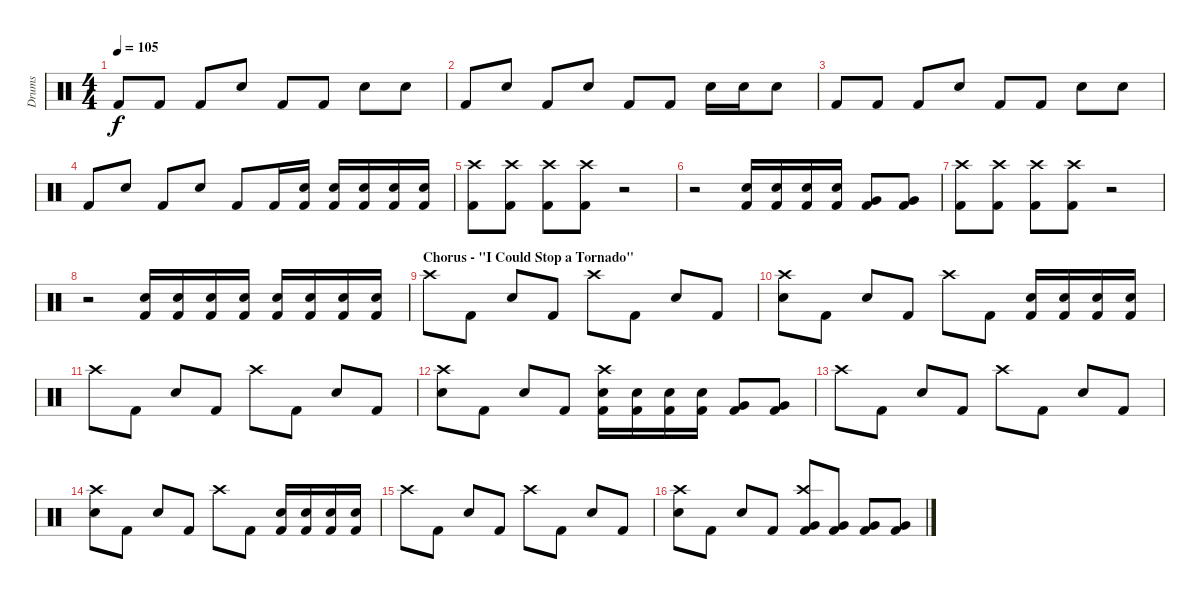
\track ("Drums" "Drums") {instrument percussion}
\staff {score}
\articulation defaults
\ts (4 4)
\tempo 105
\clef neutral
\ks c "Kick (hit) 2".8{dy f} "Kick (hit) 2".8 "Kick (hit) 2".8 "Snare (hit) 2".8 "Kick (hit) 2".8 "Kick (hit) 2".8 "Snare (hit) 2".8 "Snare (hit) 2".8
|
"Kick (hit) 2".8 "Snare (hit) 2".8 "Kick (hit) 2".8 "Snare (hit) 2".8 "Kick (hit) 2".8 "Kick (hit) 2".8 "Snare (hit) 2".16 "Snare (hit) 2".16 "Snare (hit) 2".8 |
"Kick (hit) 2".8 "Kick (hit) 2".8 "Kick (hit) 2".8 "Snare (hit) 2".8 "Kick (hit) 2".8 "Kick (hit) 2".8 "Snare (hit) 2".8 "Snare (hit) 2".8 |
"Kick (hit) 2".8 "Snare (hit) 2".8 "Kick (hit) 2".8 "Snare (hit) 2".8 "Kick (hit) 2".8 "Kick (hit) 2".16 ("Snare (hit) 2" "Kick (hit) 2").16 ("Snare (hit) 2" "Kick (hit) 2").16 ("Snare (hit) 2" "Kick (hit) 2").16 ("Snare (hit) 2" "Kick (hit) 2").16 ("Snare (hit) 2" "Kick (hit) 2").16 |
("Kick (hit) 2" "Crash high (hit)").8 ("Kick (hit) 2" "Crash high (hit)").8 ("Kick (hit) 2" "Crash high (hit)").8 ("Kick (hit) 2" "Crash high (hit)").8 r.2 |
r.2 ("Snare (hit) 2" "Kick (hit) 2").16 ("Snare (hit) 2" "Kick (hit) 2").16 ("Snare (hit) 2" "Kick (hit) 2").16 ("Snare (hit) 2" "Kick (hit) 2").16 ("Very Low Tom (hit)" "Kick (hit) 2").8 ("Very Low Tom (hit)" "Kick (hit) 2").8 |
("Kick (hit) 2" "Crash high (hit)").8 ("Kick (hit) 2" "Crash high (hit)").8 ("Kick (hit) 2" "Crash high (hit)").8 ("Kick (hit) 2" "Crash high (hit)").8 r.2 |
r.2 ("Snare (hit) 2" "Kick (hit) 2").16 ("Snare (hit) 2" "Kick (hit) 2").16 ("Snare (hit) 2" "Kick (hit) 2").16 ("Snare (hit) 2" "Kick (hit) 2").16 ("Snare (hit) 2" "Kick (hit) 2").16 ("Snare (hit) 2" "Kick (hit) 2").16 ("Snare (hit) 2" "Kick (hit) 2").16 ("Snare (hit) 2" "Kick (hit) 2").16 |
\section ("" "Chorus - \"I Could Stop a Tornado\"")
"Crash high (hit)".8 "Kick (hit) 2".8 "Snare (hit) 2".8 "Kick (hit) 2".8 "Crash high (hit)".8 "Kick (hit) 2".8 "Snare (hit) 2".8 "Kick (hit) 2".8 |
("Crash high (hit)" "Snare (hit) 2").8 "Kick (hit) 2".8 "Snare (hit) 2".8 "Kick (hit) 2".8 "Crash high (hit)".8 "Kick (hit) 2".8 ("Snare (hit) 2" "Kick (hit) 2").16 ("Snare (hit) 2" "Kick (hit) 2").16 ("Snare (hit) 2" "Kick (hit) 2").16 ("Snare (hit) 2" "Kick (hit) 2").16 |
"Crash high (hit)".8 "Kick (hit) 2".8 "Snare (hit) 2".8 "Kick (hit) 2".8 "Crash high (hit)".8 "Kick (hit) 2".8 "Snare (hit) 2".8 "Kick (hit) 2".8 |
("Crash high (hit)" "Snare (hit) 2").8 "Kick (hit) 2".8 "Snare (hit) 2".8 "Kick (hit) 2".8 ("Crash high (hit)" "Snare (hit) 2" "Kick (hit) 2").16 ("Snare (hit) 2" "Kick (hit) 2").16 ("Snare (hit) 2" "Kick (hit) 2").16 ("Snare (hit) 2" "Kick (hit) 2").16 ("Very Low Tom (hit)" "Kick (hit) 2").8 ("Very Low Tom (hit)" "Kick (hit) 2").8 |
"Crash high (hit)".8 "Kick (hit) 2".8 "Snare (hit) 2".8 "Kick (hit) 2".8 "Crash high (hit)".8 "Kick (hit) 2".8 "Snare (hit) 2".8 "Kick (hit) 2".8 |
("Crash high (hit)" "Snare (hit) 2").8 "Kick (hit) 2".8 "Snare (hit) 2".8 "Kick (hit) 2".8 "Crash high (hit)".8 "Kick (hit) 2".8 ("Snare (hit) 2" "Kick (hit) 2").16 ("Snare (hit) 2" "Kick (hit) 2").16 ("Snare (hit) 2" "Kick (hit) 2").16 ("Snare (hit) 2" "Kick (hit) 2").16 |
"Crash high (hit)".8 "Kick (hit) 2".8 "Snare (hit) 2".8 "Kick (hit) 2".8 "Crash high (hit)".8 "Kick (hit) 2".8 "Snare (hit) 2".8 "Kick (hit) 2".8 |
("Crash high (hit)" "Snare (hit) 2").8 "Kick (hit) 2".8 "Snare (hit) 2".8 "Kick (hit) 2".8 ("Crash high (hit)" "Very Low Tom (hit)" "Kick (hit) 2").8 ("Very Low Tom (hit)" "Kick (hit) 2").8 ("Very Low Tom (hit)" "Kick (hit) 2").8 ("Very Low Tom (hit)" "Kick (hit) 2").8
